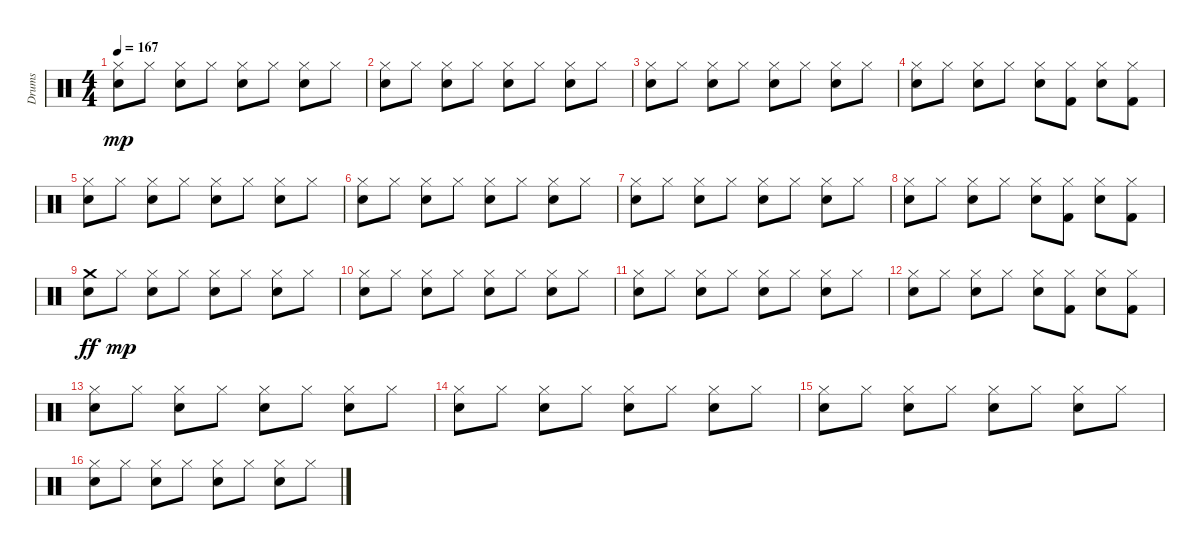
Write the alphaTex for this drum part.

\track ("Drums" "Drums") {instrument percussion}
\staff {score}
\articulation defaults
\ts (4 4)
\tempo 167
\clef neutral
\ks c
("Hi-Hat (closed)" "Snare (hit) 2").8{dy mp} "Hi-Hat (closed)".8 ("Hi-Hat (closed)" "Snare (hit) 2").8 "Hi-Hat (closed)".8 ("Hi-Hat (closed)" "Snare (hit) 2").8 "Hi-Hat (closed)".8 ("Hi-Hat (closed)" "Snare (hit) 2").8 "Hi-Hat (closed)".8 |
("Hi-Hat (closed)" "Snare (hit) 2").8 "Hi-Hat (closed)".8 ("Hi-Hat (closed)" "Snare (hit) 2").8 "Hi-Hat (closed)".8 ("Hi-Hat (closed)" "Snare (hit) 2").8 "Hi-Hat (closed)".8 ("Hi-Hat (closed)" "Snare (hit) 2").8 "Hi-Hat (closed)".8 |
("Hi-Hat (closed)" "Snare (hit) 2").8 "Hi-Hat (closed)".8 ("Hi-Hat (closed)" "Snare (hit) 2").8 "Hi-Hat (closed)".8 ("Hi-Hat (closed)" "Snare (hit) 2").8 "Hi-Hat (closed)".8 ("Hi-Hat (closed)" "Snare (hit) 2").8 "Hi-Hat (closed)".8 |
("Hi-Hat (closed)" "Snare (hit) 2").8 "Hi-Hat (closed)".8 ("Hi-Hat (closed)" "Snare (hit) 2").8 "Hi-Hat (closed)".8 ("Hi-Hat (closed)" "Snare (hit) 2").8 ("Hi-Hat (closed)" "Kick (hit) 2").8 ("Hi-Hat (closed)" "Snare (hit) 2").8 ("Hi-Hat (closed)" "Kick (hit) 2").8 |
("Hi-Hat (closed)" "Snare (hit) 2").8 "Hi-Hat (closed)".8 ("Hi-Hat (closed)" "Snare (hit) 2").8 "Hi-Hat (closed)".8 ("Hi-Hat (closed)" "Snare (hit) 2").8 "Hi-Hat (closed)".8 ("Hi-Hat (closed)" "Snare (hit) 2").8 "Hi-Hat (closed)".8 |
("Hi-Hat (closed)" "Snare (hit) 2").8 "Hi-Hat (closed)".8 ("Hi-Hat (closed)" "Snare (hit) 2").8 "Hi-Hat (closed)".8 ("Hi-Hat (closed)" "Snare (hit) 2").8 "Hi-Hat (closed)".8 ("Hi-Hat (closed)" "Snare (hit) 2").8 "Hi-Hat (closed)".8 |
("Hi-Hat (closed)" "Snare (hit) 2").8 "Hi-Hat (closed)".8 ("Hi-Hat (closed)" "Snare (hit) 2").8 "Hi-Hat (closed)".8 ("Hi-Hat (closed)" "Snare (hit) 2").8 "Hi-Hat (closed)".8 ("Hi-Hat (closed)" "Snare (hit) 2").8 "Hi-Hat (closed)".8 |
("Hi-Hat (closed)" "Snare (hit) 2").8 "Hi-Hat (closed)".8 ("Hi-Hat (closed)" "Snare (hit) 2").8 "Hi-Hat (closed)".8 ("Hi-Hat (closed)" "Snare (hit) 2").8 ("Hi-Hat (closed)" "Kick (hit) 2").8 ("Hi-Hat (closed)" "Snare (hit) 2").8 ("Hi-Hat (closed)" "Kick (hit) 2").8 |
("Crash medium (hit)" "Snare (hit) 2").8{dy ff} "Hi-Hat (closed)".8{dy mp} ("Hi-Hat (closed)" "Snare (hit) 2").8 "Hi-Hat (closed)".8 ("Hi-Hat (closed)" "Snare (hit) 2").8 "Hi-Hat (closed)".8 ("Hi-Hat (closed)" "Snare (hit) 2").8 "Hi-Hat (closed)".8 |
("Hi-Hat (closed)" "Snare (hit) 2").8 "Hi-Hat (closed)".8 ("Hi-Hat (closed)" "Snare (hit) 2").8 "Hi-Hat (closed)".8 ("Hi-Hat (closed)" "Snare (hit) 2").8 "Hi-Hat (closed)".8 ("Hi-Hat (closed)" "Snare (hit) 2").8 "Hi-Hat (closed)".8 |
("Hi-Hat (closed)" "Snare (hit) 2").8 "Hi-Hat (closed)".8 ("Hi-Hat (closed)" "Snare (hit) 2").8 "Hi-Hat (closed)".8 ("Hi-Hat (closed)" "Snare (hit) 2").8 "Hi-Hat (closed)".8 ("Hi-Hat (closed)" "Snare (hit) 2").8 "Hi-Hat (closed)".8 |
("Hi-Hat (closed)" "Snare (hit) 2").8 "Hi-Hat (closed)".8 ("Hi-Hat (closed)" "Snare (hit) 2").8 "Hi-Hat (closed)".8 ("Hi-Hat (closed)" "Snare (hit) 2").8 ("Hi-Hat (closed)" "Kick (hit) 2").8 ("Hi-Hat (closed)" "Snare (hit) 2").8 ("Hi-Hat (closed)" "Kick (hit) 2").8 |
("Hi-Hat (closed)" "Snare (hit) 2").8 "Hi-Hat (closed)".8 ("Hi-Hat (closed)" "Snare (hit) 2").8 "Hi-Hat (closed)".8 ("Hi-Hat (closed)" "Snare (hit) 2").8 "Hi-Hat (closed)".8 ("Hi-Hat (closed)" "Snare (hit) 2").8 "Hi-Hat (closed)".8 |
("Hi-Hat (closed)" "Snare (hit) 2").8 "Hi-Hat (closed)".8 ("Hi-Hat (closed)" "Snare (hit) 2").8 "Hi-Hat (closed)".8 ("Hi-Hat (closed)" "Snare (hit) 2").8 "Hi-Hat (closed)".8 ("Hi-Hat (closed)" "Snare (hit) 2").8 "Hi-Hat (closed)".8 |
("Hi-Hat (closed)" "Snare (hit) 2").8 "Hi-Hat (closed)".8 ("Hi-Hat (closed)" "Snare (hit) 2").8 "Hi-Hat (closed)".8 ("Hi-Hat (closed)" "Snare (hit) 2").8 "Hi-Hat (closed)".8 ("Hi-Hat (closed)" "Snare (hit) 2").8 "Hi-Hat (closed)".8 |
("Hi-Hat (closed)" "Snare (hit) 2").8 "Hi-Hat (closed)".8 ("Hi-Hat (closed)" "Snare (hit) 2").8 "Hi-Hat (closed)".8 ("Hi-Hat (closed)" "Snare (hit) 2").8 "Hi-Hat (closed)".8 ("Hi-Hat (closed)" "Snare (hit) 2").8 "Hi-Hat (closed)".8
